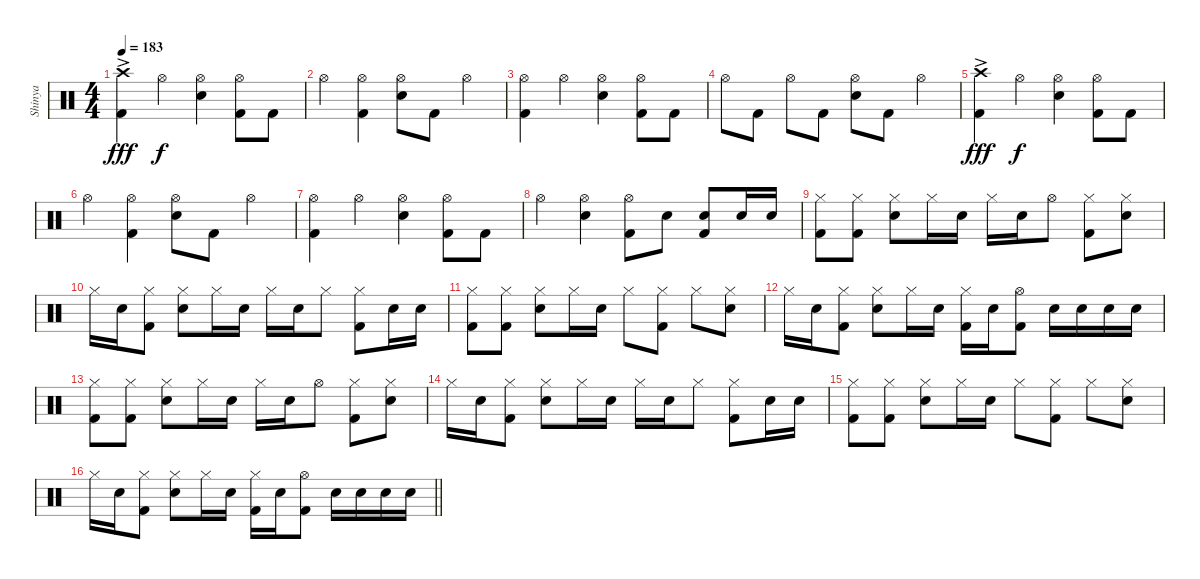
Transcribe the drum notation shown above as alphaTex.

\track ("Shinya" "Shinya") {instrument percussion}
\staff {score}
\articulation defaults
\ts (4 4)
\tempo 183
\clef neutral
\ks c
("Crash high (hit)"{ac} "Kick (hit) 2").4{dy fff} "Hi-Hat (open)".4{dy f} ("Hi-Hat (open)" "Snare (hit) 2").4 ("Hi-Hat (open)" "Kick (hit) 2").8 "Kick (hit) 2".8 |
"Hi-Hat (open)".4 ("Hi-Hat (open)" "Kick (hit) 2").4 ("Hi-Hat (open)" "Snare (hit) 2").8 "Kick (hit) 2".8 "Hi-Hat (open)".4 |
("Hi-Hat (open)" "Kick (hit) 2").4 "Hi-Hat (open)".4 ("Hi-Hat (open)" "Snare (hit) 2").4 ("Hi-Hat (open)" "Kick (hit) 2").8 "Kick (hit) 2".8 |
"Hi-Hat (open)".8 "Kick (hit) 2".8 "Hi-Hat (open)".8 "Kick (hit) 2".8 ("Hi-Hat (open)" "Snare (hit) 2").8 "Kick (hit) 2".8 "Hi-Hat (open)".4 |
("Crash high (hit)"{ac} "Kick (hit) 2").4{dy fff} "Hi-Hat (open)".4{dy f} ("Hi-Hat (open)" "Snare (hit) 2").4 ("Hi-Hat (open)" "Kick (hit) 2").8 "Kick (hit) 2".8 |
"Hi-Hat (open)".4 ("Hi-Hat (open)" "Kick (hit) 2").4 ("Hi-Hat (open)" "Snare (hit) 2").8 "Kick (hit) 2".8 "Hi-Hat (open)".4 |
("Hi-Hat (open)" "Kick (hit) 2").4 "Hi-Hat (open)".4 ("Hi-Hat (open)" "Snare (hit) 2").4 ("Hi-Hat (open)" "Kick (hit) 2").8 "Kick (hit) 2".8 |
"Hi-Hat (open)".4 ("Hi-Hat (open)" "Snare (hit) 2").4 ("Hi-Hat (open)" "Kick (hit) 2").8 "Snare (hit) 2".8 ("Snare (hit) 2" "Kick (hit) 2").8 "Snare (hit) 2".16 "Snare (hit) 2".16 |
("Hi-Hat (closed)" "Kick (hit) 2").8 ("Hi-Hat (closed)" "Kick (hit) 2").8 ("Hi-Hat (closed)" "Snare (hit) 2").8 "Hi-Hat (closed)".16 "Snare (hit) 2".16 "Hi-Hat (closed)".16 "Snare (hit) 2".16 "Hi-Hat (open)".8 ("Hi-Hat (closed)" "Kick (hit) 2").8 ("Hi-Hat (closed)" "Snare (hit) 2").8 |
"Hi-Hat (closed)".16 "Snare (hit) 2".16 ("Hi-Hat (closed)" "Kick (hit) 2").8 ("Hi-Hat (closed)" "Snare (hit) 2").8 "Hi-Hat (closed)".16 "Snare (hit) 2".16 "Hi-Hat (closed)".16 "Snare (hit) 2".16 "Hi-Hat (closed)".8 ("Hi-Hat (closed)" "Kick (hit) 2").8 "Snare (hit) 2".16 "Snare (hit) 2".16 |
("Hi-Hat (closed)" "Kick (hit) 2").8 ("Hi-Hat (closed)" "Kick (hit) 2").8 ("Hi-Hat (closed)" "Snare (hit) 2").8 "Hi-Hat (closed)".16 "Snare (hit) 2".16 "Hi-Hat (closed)".8 ("Hi-Hat (closed)" "Kick (hit) 2").8 "Hi-Hat (closed)".8 ("Hi-Hat (closed)" "Snare (hit) 2").8 |
"Hi-Hat (closed)".16 "Snare (hit) 2".16 ("Hi-Hat (closed)" "Kick (hit) 2").8 ("Hi-Hat (closed)" "Snare (hit) 2").8 "Hi-Hat (closed)".16 "Snare (hit) 2".16 ("Hi-Hat (closed)" "Kick (hit) 2").16 "Snare (hit) 2".16 ("Hi-Hat (open)" "Kick (hit) 2").8 "Snare (hit) 2".16 "Snare (hit) 2".16 "Snare (hit) 2".16 "Snare (hit) 2".16 |
("Hi-Hat (closed)" "Kick (hit) 2").8 ("Hi-Hat (closed)" "Kick (hit) 2").8 ("Hi-Hat (closed)" "Snare (hit) 2").8 "Hi-Hat (closed)".16 "Snare (hit) 2".16 "Hi-Hat (closed)".16 "Snare (hit) 2".16 "Hi-Hat (open)".8 ("Hi-Hat (closed)" "Kick (hit) 2").8 ("Hi-Hat (closed)" "Snare (hit) 2").8 |
"Hi-Hat (closed)".16 "Snare (hit) 2".16 ("Hi-Hat (closed)" "Kick (hit) 2").8 ("Hi-Hat (closed)" "Snare (hit) 2").8 "Hi-Hat (closed)".16 "Snare (hit) 2".16 "Hi-Hat (closed)".16 "Snare (hit) 2".16 "Hi-Hat (closed)".8 ("Hi-Hat (closed)" "Kick (hit) 2").8 "Snare (hit) 2".16 "Snare (hit) 2".16 |
("Hi-Hat (closed)" "Kick (hit) 2").8 ("Hi-Hat (closed)" "Kick (hit) 2").8 ("Hi-Hat (closed)" "Snare (hit) 2").8 "Hi-Hat (closed)".16 "Snare (hit) 2".16 "Hi-Hat (closed)".8 ("Hi-Hat (closed)" "Kick (hit) 2").8 "Hi-Hat (closed)".8 ("Hi-Hat (closed)" "Snare (hit) 2").8 |
\barLineRight lightlight "Hi-Hat (closed)".16 "Snare (hit) 2".16
("Hi-Hat (closed)" "Kick (hit) 2").8 ("Hi-Hat (closed)" "Snare (hit) 2").8 "Hi-Hat (closed)".16 "Snare (hit) 2".16 ("Hi-Hat (closed)" "Kick (hit) 2").16 "Snare (hit) 2".16 ("Hi-Hat (open)" "Kick (hit) 2").8 "Snare (hit) 2".16 "Snare (hit) 2".16 "Snare (hit) 2".16 "Snare (hit) 2".16
